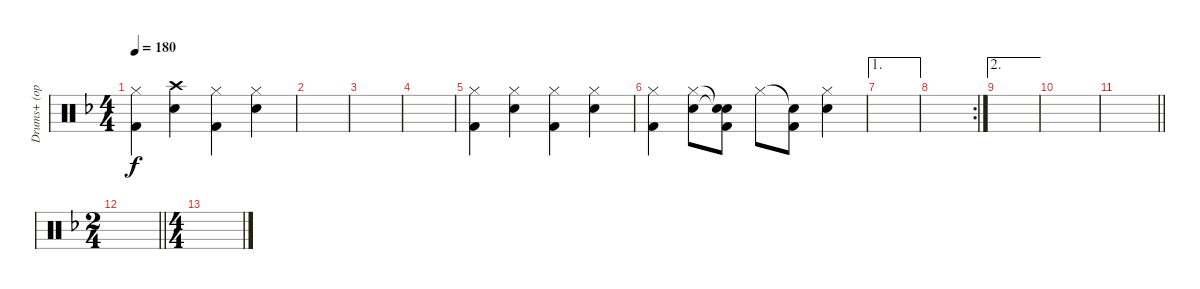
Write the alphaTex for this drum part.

\track ("Drums+ (optional)" "Drums+ (op") {instrument percussion}
\staff {score}
\articulation defaults
\ts (4 4)
\tempo 180
\clef neutral
\ks f
("Hi-Hat (closed)" "Kick (hit) 2").4{dy f} ("Crash high (hit)" "Snare (hit) 2").4 ("Hi-Hat (closed)" "Kick (hit) 2").4 ("Hi-Hat (closed)" "Snare (hit) 2").4 |
|
|
|
("Hi-Hat (closed)" "Kick (hit) 2").4 ("Hi-Hat (closed)" "Snare (hit) 2").4 ("Hi-Hat (closed)" "Kick (hit) 2").4 ("Hi-Hat (closed)" "Snare (hit) 2").4 |
("Hi-Hat (closed)" "Kick (hit) 2").4 ("Hi-Hat (closed)" "Snare (hit) 2").8 ("Snare (hit)"{t} "Snare (hit)"{t} "Kick (hit) 2").8 "Hi-Hat (closed)".8 ("Snare (hit)"{t} "Kick (hit) 2").8 ("Hi-Hat (closed)" "Snare (hit) 2").4 |
\ae 1
|
\rc 2
|
\ae 2
|
|
\barLineRight lightlight
|
\ts (2 4)
\barLineRight lightlight
|
\ts (4 4)
